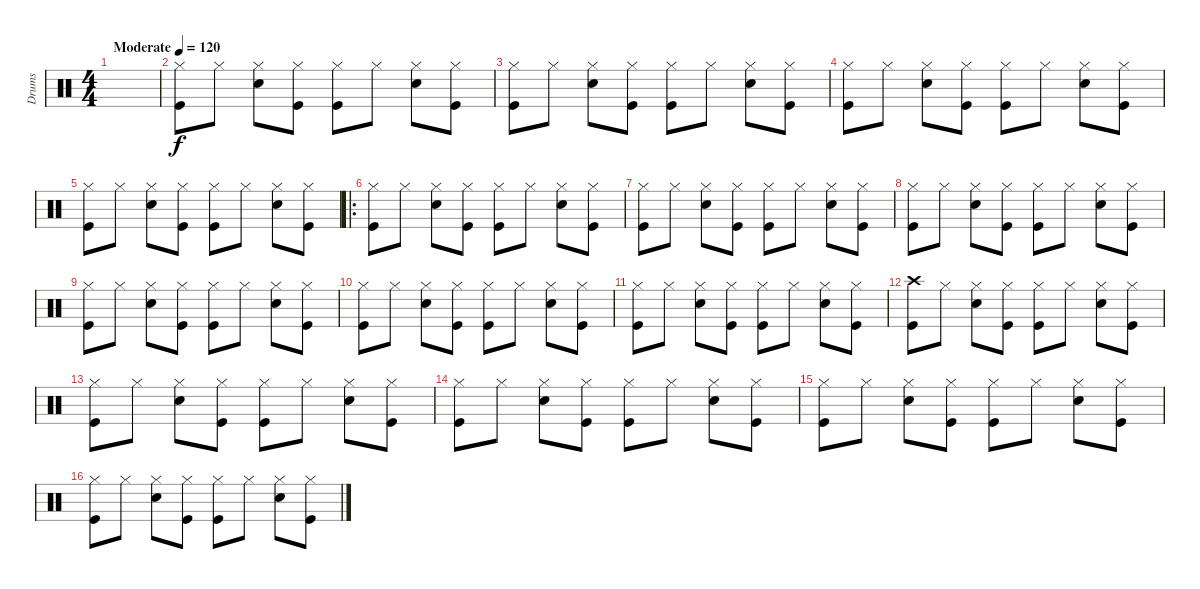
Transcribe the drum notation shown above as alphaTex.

\track ("Drums" "Drums") {instrument percussion}
\staff {score}
\articulation defaults
\ts (4 4)
\tempo (120 "Moderate")
\clef neutral
\ks c
|
("Hi-Hat (closed)" "Kick (hit)").8 "Hi-Hat (closed)".8 ("Hi-Hat (closed)" "Electric Snare (hit)").8 ("Hi-Hat (closed)" "Kick (hit)").8 ("Hi-Hat (closed)" "Kick (hit)").8 "Hi-Hat (closed)".8 ("Hi-Hat (closed)" "Electric Snare (hit)").8 ("Hi-Hat (closed)" "Kick (hit)").8 |
("Hi-Hat (closed)" "Kick (hit)").8 "Hi-Hat (closed)".8 ("Hi-Hat (closed)" "Electric Snare (hit)").8 ("Hi-Hat (closed)" "Kick (hit)").8 ("Hi-Hat (closed)" "Kick (hit)").8 "Hi-Hat (closed)".8 ("Hi-Hat (closed)" "Electric Snare (hit)").8 ("Hi-Hat (closed)" "Kick (hit)").8 |
("Hi-Hat (closed)" "Kick (hit)").8 "Hi-Hat (closed)".8 ("Hi-Hat (closed)" "Electric Snare (hit)").8 ("Hi-Hat (closed)" "Kick (hit)").8 ("Hi-Hat (closed)" "Kick (hit)").8 "Hi-Hat (closed)".8 ("Hi-Hat (closed)" "Electric Snare (hit)").8 ("Hi-Hat (closed)" "Kick (hit)").8 |
("Hi-Hat (closed)" "Kick (hit)").8 "Hi-Hat (closed)".8 ("Hi-Hat (closed)" "Electric Snare (hit)").8 ("Hi-Hat (closed)" "Kick (hit)").8 ("Hi-Hat (closed)" "Kick (hit)").8 "Hi-Hat (closed)".8 ("Hi-Hat (closed)" "Electric Snare (hit)").8 ("Hi-Hat (closed)" "Kick (hit)").8 |
\ro
("Hi-Hat (closed)" "Kick (hit)").8 "Hi-Hat (closed)".8 ("Hi-Hat (closed)" "Electric Snare (hit)").8 ("Hi-Hat (closed)" "Kick (hit)").8 ("Hi-Hat (closed)" "Kick (hit)").8 "Hi-Hat (closed)".8 ("Hi-Hat (closed)" "Electric Snare (hit)").8 ("Hi-Hat (closed)" "Kick (hit)").8 |
("Hi-Hat (closed)" "Kick (hit)").8 "Hi-Hat (closed)".8 ("Hi-Hat (closed)" "Electric Snare (hit)").8 ("Hi-Hat (closed)" "Kick (hit)").8 ("Hi-Hat (closed)" "Kick (hit)").8 "Hi-Hat (closed)".8 ("Hi-Hat (closed)" "Electric Snare (hit)").8 ("Hi-Hat (closed)" "Kick (hit)").8 |
("Hi-Hat (closed)" "Kick (hit)").8 "Hi-Hat (closed)".8 ("Hi-Hat (closed)" "Electric Snare (hit)").8 ("Hi-Hat (closed)" "Kick (hit)").8 ("Hi-Hat (closed)" "Kick (hit)").8 "Hi-Hat (closed)".8 ("Hi-Hat (closed)" "Electric Snare (hit)").8 ("Hi-Hat (closed)" "Kick (hit)").8 |
("Hi-Hat (closed)" "Kick (hit)").8 "Hi-Hat (closed)".8 ("Hi-Hat (closed)" "Electric Snare (hit)").8 ("Hi-Hat (closed)" "Kick (hit)").8 ("Hi-Hat (closed)" "Kick (hit)").8 "Hi-Hat (closed)".8 ("Hi-Hat (closed)" "Electric Snare (hit)").8 ("Hi-Hat (closed)" "Kick (hit)").8 |
("Hi-Hat (closed)" "Kick (hit)").8 "Hi-Hat (closed)".8 ("Hi-Hat (closed)" "Electric Snare (hit)").8 ("Hi-Hat (closed)" "Kick (hit)").8 ("Hi-Hat (closed)" "Kick (hit)").8 "Hi-Hat (closed)".8 ("Hi-Hat (closed)" "Electric Snare (hit)").8 ("Hi-Hat (closed)" "Kick (hit)").8 |
("Hi-Hat (closed)" "Kick (hit)").8 "Hi-Hat (closed)".8 ("Hi-Hat (closed)" "Electric Snare (hit)").8 ("Hi-Hat (closed)" "Kick (hit)").8 ("Hi-Hat (closed)" "Kick (hit)").8 "Hi-Hat (closed)".8 ("Hi-Hat (closed)" "Electric Snare (hit)").8 ("Hi-Hat (closed)" "Kick (hit)").8 |
("Crash high (hit)" "Kick (hit)").8 "Hi-Hat (closed)".8 ("Hi-Hat (closed)" "Electric Snare (hit)").8 ("Hi-Hat (closed)" "Kick (hit)").8 ("Hi-Hat (closed)" "Kick (hit)").8 "Hi-Hat (closed)".8 ("Hi-Hat (closed)" "Electric Snare (hit)").8 ("Hi-Hat (closed)" "Kick (hit)").8 |
("Hi-Hat (closed)" "Kick (hit)").8 "Hi-Hat (closed)".8 ("Hi-Hat (closed)" "Electric Snare (hit)").8 ("Hi-Hat (closed)" "Kick (hit)").8 ("Hi-Hat (closed)" "Kick (hit)").8 "Hi-Hat (closed)".8 ("Hi-Hat (closed)" "Electric Snare (hit)").8 ("Hi-Hat (closed)" "Kick (hit)").8 |
("Hi-Hat (closed)" "Kick (hit)").8 "Hi-Hat (closed)".8 ("Hi-Hat (closed)" "Electric Snare (hit)").8 ("Hi-Hat (closed)" "Kick (hit)").8 ("Hi-Hat (closed)" "Kick (hit)").8 "Hi-Hat (closed)".8 ("Hi-Hat (closed)" "Electric Snare (hit)").8 ("Hi-Hat (closed)" "Kick (hit)").8 |
("Hi-Hat (closed)" "Kick (hit)").8 "Hi-Hat (closed)".8 ("Hi-Hat (closed)" "Electric Snare (hit)").8 ("Hi-Hat (closed)" "Kick (hit)").8 ("Hi-Hat (closed)" "Kick (hit)").8 "Hi-Hat (closed)".8 ("Hi-Hat (closed)" "Electric Snare (hit)").8 ("Hi-Hat (closed)" "Kick (hit)").8 |
("Hi-Hat (closed)" "Kick (hit)").8 "Hi-Hat (closed)".8 ("Hi-Hat (closed)" "Electric Snare (hit)").8 ("Hi-Hat (closed)" "Kick (hit)").8 ("Hi-Hat (closed)" "Kick (hit)").8 "Hi-Hat (closed)".8 ("Hi-Hat (closed)" "Electric Snare (hit)").8 ("Hi-Hat (closed)" "Kick (hit)").8
